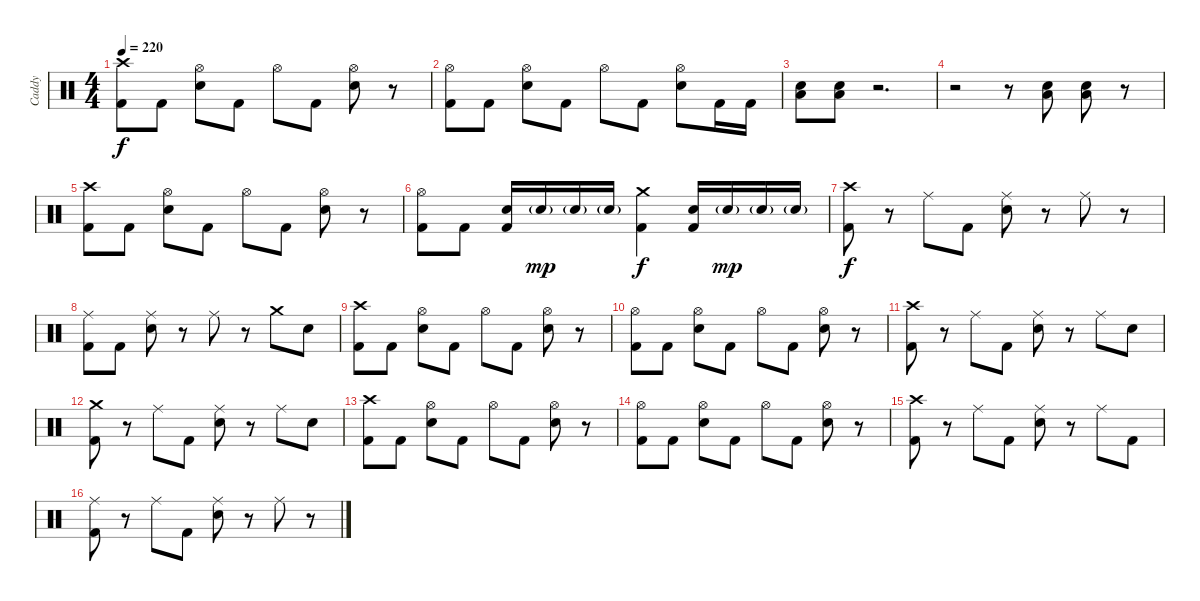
\track ("Caddy" "Caddy") {instrument percussion}
\staff {score}
\articulation defaults
\ts (4 4)
\tempo 220
\clef neutral
\ks c
("Crash high (hit)" "Kick (hit) 2").8{dy f} "Kick (hit) 2".8 ("Hi-Hat (open)" "Electric Snare (hit)").8 "Kick (hit) 2".8 "Hi-Hat (open)".8 "Kick (hit) 2".8 ("Hi-Hat (open)" "Electric Snare (hit)").8 r.8 |
("Hi-Hat (open)" "Kick (hit) 2").8 "Kick (hit) 2".8 ("Hi-Hat (open)" "Electric Snare (hit)").8 "Kick (hit) 2".8 "Hi-Hat (open)".8 "Kick (hit) 2".8 ("Hi-Hat (open)" "Electric Snare (hit)").8 "Kick (hit) 2".16 "Kick (hit) 2".16 |
("Electric Snare (hit)" "Low Floor Tom (hit)").8 ("Electric Snare (hit)" "Low Floor Tom (hit)").8 r.2{d} |
r.2 r.8 ("Electric Snare (hit)" "Low Floor Tom (hit)").8 ("Electric Snare (hit)" "Low Floor Tom (hit)").8 r.8 |
("Crash high (hit)" "Kick (hit) 2").8 "Kick (hit) 2".8 ("Hi-Hat (open)" "Electric Snare (hit)").8 "Kick (hit) 2".8 "Hi-Hat (open)".8 "Kick (hit) 2".8 ("Hi-Hat (open)" "Electric Snare (hit)").8 r.8 |
("Hi-Hat (open)" "Kick (hit) 2").8 "Kick (hit) 2".8 ("Electric Snare (hit)" "Kick (hit) 2").16 "Electric Snare (hit)"{g}.16{dy mp} "Electric Snare (hit)"{g}.16 "Electric Snare (hit)"{g}.16 ("Crash medium (hit)" "Kick (hit) 2").4{dy f} ("Electric Snare (hit)" "Kick (hit) 2").16 "Electric Snare (hit)"{g}.16{dy mp} "Electric Snare (hit)"{g}.16 "Electric Snare (hit)"{g}.16 |
("Crash high (hit)" "Kick (hit) 2").8{dy f} r.8 "Ride (middle)".8 "Kick (hit) 2".8 ("Ride (middle)" "Electric Snare (hit)").8 r.8 "Ride (middle)".8 r.8 |
("Ride (middle)" "Kick (hit) 2").8 "Kick (hit) 2".8 ("Ride (middle)" "Electric Snare (hit)").8 r.8 "Ride (middle)".8 r.8 "Crash medium (hit)".8 "Electric Snare (hit)".8 |
("Crash high (hit)" "Kick (hit) 2").8 "Kick (hit) 2".8 ("Hi-Hat (open)" "Electric Snare (hit)").8 "Kick (hit) 2".8 "Hi-Hat (open)".8 "Kick (hit) 2".8 ("Hi-Hat (open)" "Electric Snare (hit)").8 r.8 |
("Hi-Hat (open)" "Kick (hit) 2").8 "Kick (hit) 2".8 ("Hi-Hat (open)" "Electric Snare (hit)").8 "Kick (hit) 2".8 "Hi-Hat (open)".8 "Kick (hit) 2".8 ("Hi-Hat (open)" "Electric Snare (hit)").8 r.8 |
("Crash high (hit)" "Kick (hit) 2").8 r.8 "Ride (middle)".8 "Kick (hit) 2".8 ("Ride (middle)" "Electric Snare (hit)").8 r.8 "Ride (middle)".8 "Electric Snare (hit)".8 |
("Crash medium (hit)" "Kick (hit) 2").8 r.8 "Ride (middle)".8 "Kick (hit) 2".8 ("Ride (middle)" "Electric Snare (hit)").8 r.8 "Ride (middle)".8 "Electric Snare (hit)".8 |
("Crash high (hit)" "Kick (hit) 2").8 "Kick (hit) 2".8 ("Hi-Hat (open)" "Electric Snare (hit)").8 "Kick (hit) 2".8 "Hi-Hat (open)".8 "Kick (hit) 2".8 ("Hi-Hat (open)" "Electric Snare (hit)").8 r.8 |
("Hi-Hat (open)" "Kick (hit) 2").8 "Kick (hit) 2".8 ("Hi-Hat (open)" "Electric Snare (hit)").8 "Kick (hit) 2".8 "Hi-Hat (open)".8 "Kick (hit) 2".8 ("Hi-Hat (open)" "Electric Snare (hit)").8 r.8 |
("Crash high (hit)" "Kick (hit) 2").8 r.8 "Ride (middle)".8 "Kick (hit) 2".8 ("Ride (middle)" "Electric Snare (hit)").8 r.8 "Ride (middle)".8 "Kick (hit) 2".8 |
("Ride (middle)" "Kick (hit) 2").8 r.8 "Ride (middle)".8 "Kick (hit) 2".8 ("Ride (middle)" "Electric Snare (hit)").8 r.8 "Ride (middle)".8 r.8
